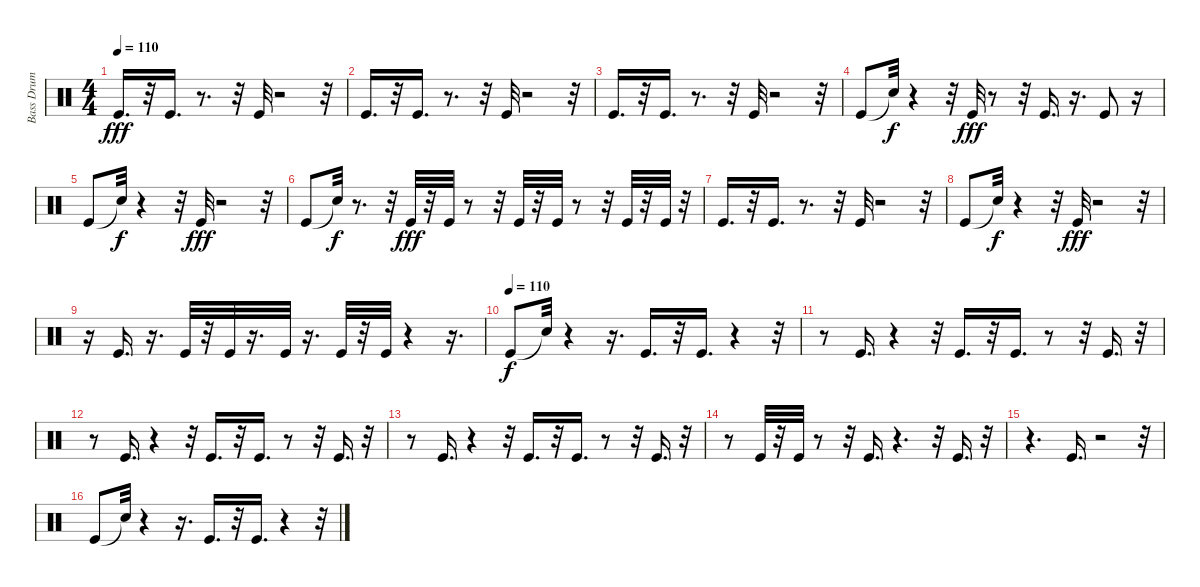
\track ("Bass Drum" "Bass Drum") {instrument percussion}
\staff {score}
\articulation defaults
\ts (4 4)
\tempo 110
\clef neutral
\ks c "Kick (hit)".16{d dy fff}
r.32 "Kick (hit)".16{d} r.8{d} r.32 "Kick (hit)".32 r.2 r.32 |
"Kick (hit)".16{d} r.32 "Kick (hit)".16{d} r.8{d} r.32 "Kick (hit)".32 r.2 r.32 |
"Kick (hit)".16{d} r.32 "Kick (hit)".16{d} r.8{d} r.32 "Kick (hit)".32 r.2 r.32 |
"Kick (hit)".8 "Snare (hit)"{t}.32{dy f} r.4 r.32 "Kick (hit)".32{dy fff} r.8 r.32 "Kick (hit)".16{d} r.16{d} "Kick (hit)".8 r.16 |
"Kick (hit)".8 "Snare (hit)"{t}.32{dy f} r.4 r.32 "Kick (hit)".32{dy fff} r.2 r.32 |
"Kick (hit)".8 "Snare (hit)"{t}.32{dy f} r.8{d} r.32 "Kick (hit)".32{dy fff} r.32 "Kick (hit)".32 r.8 r.32 "Kick (hit)".32 r.32 "Kick (hit)".32 r.8 r.32 "Kick (hit)".32 r.32 "Kick (hit)".32 r.32 |
"Kick (hit)".16{d} r.32 "Kick (hit)".16{d} r.8{d} r.32 "Kick (hit)".32 r.2 r.32 |
"Kick (hit)".8 "Snare (hit)"{t}.32{dy f} r.4 r.32 "Kick (hit)".32{dy fff} r.2 r.32 |
r.16 "Kick (hit)".16{d} r.16{d} "Kick (hit)".32 r.32 "Kick (hit)".32 r.16{d} "Kick (hit)".32 r.16{d} "Kick (hit)".32 r.32 "Kick (hit)".32 r.4 r.16{d} |
\tempo (110)
"Kick (hit)".8{dy f} "Snare (hit)"{t}.32 r.4 r.16{d} "Kick (hit)".16{d} r.32 "Kick (hit)".16{d} r.4 r.32 |
r.8 "Kick (hit)".16{d} r.4 r.32 "Kick (hit)".16{d} r.32 "Kick (hit)".16{d} r.8 r.32 "Kick (hit)".16{d} r.32 |
r.8 "Kick (hit)".16{d} r.4 r.32 "Kick (hit)".16{d} r.32 "Kick (hit)".16{d} r.8 r.32 "Kick (hit)".16{d} r.32 |
r.8 "Kick (hit)".16{d} r.4 r.32 "Kick (hit)".16{d} r.32 "Kick (hit)".16{d} r.8 r.32 "Kick (hit)".16{d} r.32 |
r.8 "Kick (hit)".32 r.32 "Kick (hit)".32 r.8 r.32 "Kick (hit)".16{d} r.4{d} r.32 "Kick (hit)".16{d} r.32 |
r.4{d} "Kick (hit)".16{d} r.2 r.32 |
"Kick (hit)".8 "Snare (hit)"{t}.32 r.4 r.16{d} "Kick (hit)".16{d} r.32 "Kick (hit)".16{d} r.4 r.32
